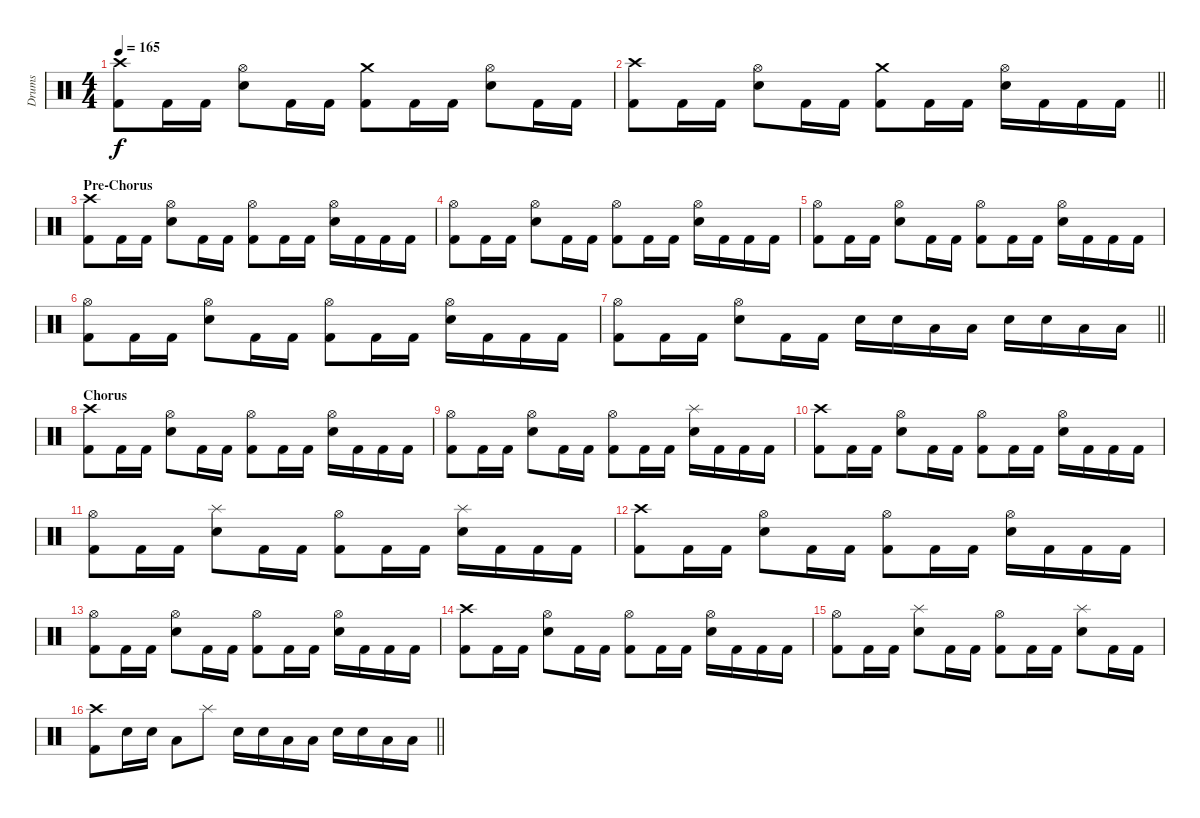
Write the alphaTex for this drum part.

\track ("Drums" "Drums") {instrument percussion}
\staff {score}
\articulation defaults
\ts (4 4)
\tempo 165
\clef neutral
\ks c
("Crash high (hit)" "Kick (hit) 2").8{dy f} "Kick (hit) 2".16 "Kick (hit) 2".16 ("Hi-Hat (open)" "Snare (hit) 2").8 "Kick (hit) 2".16 "Kick (hit) 2".16 ("Crash medium (hit)" "Kick (hit) 2").8 "Kick (hit) 2".16 "Kick (hit) 2".16 ("Hi-Hat (open)" "Snare (hit) 2").8 "Kick (hit) 2".16 "Kick (hit) 2".16 |
\barLineRight lightlight
("Crash high (hit)" "Kick (hit) 2").8 "Kick (hit) 2".16 "Kick (hit) 2".16 ("Hi-Hat (open)" "Snare (hit) 2").8 "Kick (hit) 2".16 "Kick (hit) 2".16 ("Crash medium (hit)" "Kick (hit) 2").8 "Kick (hit) 2".16 "Kick (hit) 2".16 ("Hi-Hat (open)" "Snare (hit) 2").16 "Kick (hit) 2".16 "Kick (hit) 2".16 "Kick (hit) 2".16 |
\section ("" "Pre-Chorus")
("Crash high (hit)" "Kick (hit) 2").8 "Kick (hit) 2".16 "Kick (hit) 2".16 ("Hi-Hat (open)" "Snare (hit) 2").8 "Kick (hit) 2".16 "Kick (hit) 2".16 ("Hi-Hat (open)" "Kick (hit) 2").8 "Kick (hit) 2".16 "Kick (hit) 2".16 ("Hi-Hat (open)" "Snare (hit) 2").16 "Kick (hit) 2".16 "Kick (hit) 2".16 "Kick (hit) 2".16 |
("Hi-Hat (open)" "Kick (hit) 2").8 "Kick (hit) 2".16 "Kick (hit) 2".16 ("Hi-Hat (open)" "Snare (hit) 2").8 "Kick (hit) 2".16 "Kick (hit) 2".16 ("Hi-Hat (open)" "Kick (hit) 2").8 "Kick (hit) 2".16 "Kick (hit) 2".16 ("Hi-Hat (open)" "Snare (hit) 2").16 "Kick (hit) 2".16 "Kick (hit) 2".16 "Kick (hit) 2".16 |
("Hi-Hat (open)" "Kick (hit) 2").8 "Kick (hit) 2".16 "Kick (hit) 2".16 ("Hi-Hat (open)" "Snare (hit) 2").8 "Kick (hit) 2".16 "Kick (hit) 2".16 ("Hi-Hat (open)" "Kick (hit) 2").8 "Kick (hit) 2".16 "Kick (hit) 2".16 ("Hi-Hat (open)" "Snare (hit) 2").16 "Kick (hit) 2".16 "Kick (hit) 2".16 "Kick (hit) 2".16 |
("Hi-Hat (open)" "Kick (hit) 2").8 "Kick (hit) 2".16 "Kick (hit) 2".16 ("Hi-Hat (open)" "Snare (hit) 2").8 "Kick (hit) 2".16 "Kick (hit) 2".16 ("Hi-Hat (open)" "Kick (hit) 2").8 "Kick (hit) 2".16 "Kick (hit) 2".16 ("Hi-Hat (open)" "Snare (hit) 2").16 "Kick (hit) 2".16 "Kick (hit) 2".16 "Kick (hit) 2".16 |
\barLineRight lightlight
("Hi-Hat (open)" "Kick (hit) 2").8 "Kick (hit) 2".16 "Kick (hit) 2".16 ("Hi-Hat (open)" "Snare (hit) 2").8 "Kick (hit) 2".16 "Kick (hit) 2".16 "Snare (hit) 2".16 "Snare (hit) 2".16 "Low Tom (hit)".16 "Low Tom (hit)".16 "Snare (hit) 2".16 "Snare (hit) 2".16 "Low Tom (hit)".16 "Low Tom (hit)".16 |
\section ("" "Chorus")
("Crash high (hit)" "Kick (hit) 2").8 "Kick (hit) 2".16 "Kick (hit) 2".16 ("Hi-Hat (open)" "Snare (hit) 2").8 "Kick (hit) 2".16 "Kick (hit) 2".16 ("Hi-Hat (open)" "Kick (hit) 2").8 "Kick (hit) 2".16 "Kick (hit) 2".16 ("Hi-Hat (open)" "Snare (hit) 2").16 "Kick (hit) 2".16 "Kick (hit) 2".16 "Kick (hit) 2".16 |
("Hi-Hat (open)" "Kick (hit) 2").8 "Kick (hit) 2".16 "Kick (hit) 2".16 ("Hi-Hat (open)" "Snare (hit) 2").8 "Kick (hit) 2".16 "Kick (hit) 2".16 ("Hi-Hat (open)" "Kick (hit) 2").8 "Kick (hit) 2".16 "Kick (hit) 2".16 ("Splash (hit)" "Snare (hit) 2").16 "Kick (hit) 2".16 "Kick (hit) 2".16 "Kick (hit) 2".16 |
("Crash high (hit)" "Kick (hit) 2").8 "Kick (hit) 2".16 "Kick (hit) 2".16 ("Hi-Hat (open)" "Snare (hit) 2").8 "Kick (hit) 2".16 "Kick (hit) 2".16 ("Hi-Hat (open)" "Kick (hit) 2").8 "Kick (hit) 2".16 "Kick (hit) 2".16 ("Hi-Hat (open)" "Snare (hit) 2").16 "Kick (hit) 2".16 "Kick (hit) 2".16 "Kick (hit) 2".16 |
("Hi-Hat (open)" "Kick (hit) 2").8 "Kick (hit) 2".16 "Kick (hit) 2".16 ("Splash (hit)" "Snare (hit) 2").8 "Kick (hit) 2".16 "Kick (hit) 2".16 ("Hi-Hat (open)" "Kick (hit) 2").8 "Kick (hit) 2".16 "Kick (hit) 2".16 ("Splash (hit)" "Snare (hit) 2").16 "Kick (hit) 2".16 "Kick (hit) 2".16 "Kick (hit) 2".16 |
("Crash high (hit)" "Kick (hit) 2").8 "Kick (hit) 2".16 "Kick (hit) 2".16 ("Hi-Hat (open)" "Snare (hit) 2").8 "Kick (hit) 2".16 "Kick (hit) 2".16 ("Hi-Hat (open)" "Kick (hit) 2").8 "Kick (hit) 2".16 "Kick (hit) 2".16 ("Hi-Hat (open)" "Snare (hit) 2").16 "Kick (hit) 2".16 "Kick (hit) 2".16 "Kick (hit) 2".16 |
("Hi-Hat (open)" "Kick (hit) 2").8 "Kick (hit) 2".16 "Kick (hit) 2".16 ("Hi-Hat (open)" "Snare (hit) 2").8 "Kick (hit) 2".16 "Kick (hit) 2".16 ("Hi-Hat (open)" "Kick (hit) 2").8 "Kick (hit) 2".16 "Kick (hit) 2".16 ("Hi-Hat (open)" "Snare (hit) 2").16 "Kick (hit) 2".16 "Kick (hit) 2".16 "Kick (hit) 2".16 |
("Crash high (hit)" "Kick (hit) 2").8 "Kick (hit) 2".16 "Kick (hit) 2".16 ("Hi-Hat (open)" "Snare (hit) 2").8 "Kick (hit) 2".16 "Kick (hit) 2".16 ("Hi-Hat (open)" "Kick (hit) 2").8 "Kick (hit) 2".16 "Kick (hit) 2".16 ("Hi-Hat (open)" "Snare (hit) 2").16 "Kick (hit) 2".16 "Kick (hit) 2".16 "Kick (hit) 2".16 |
("Hi-Hat (open)" "Kick (hit) 2").8 "Kick (hit) 2".16 "Kick (hit) 2".16 ("Splash (hit)" "Snare (hit) 2").8 "Kick (hit) 2".16 "Kick (hit) 2".16 ("Hi-Hat (open)" "Kick (hit) 2").8 "Kick (hit) 2".16 "Kick (hit) 2".16 ("Splash (hit)" "Snare (hit) 2").8 "Kick (hit) 2".16 "Kick (hit) 2".16 |
\barLineRight lightlight
("Crash high (hit)" "Kick (hit) 2").8 "Snare (hit) 2".16 "Snare (hit) 2".16 "Low Tom (hit)".8 "Splash (hit)".8 "Snare (hit) 2".16 "Snare (hit) 2".16 "Low Tom (hit)".16 "Low Tom (hit)".16 "Snare (hit) 2".16 "Snare (hit) 2".16 "Low Tom (hit)".16 "Low Tom (hit)".16
